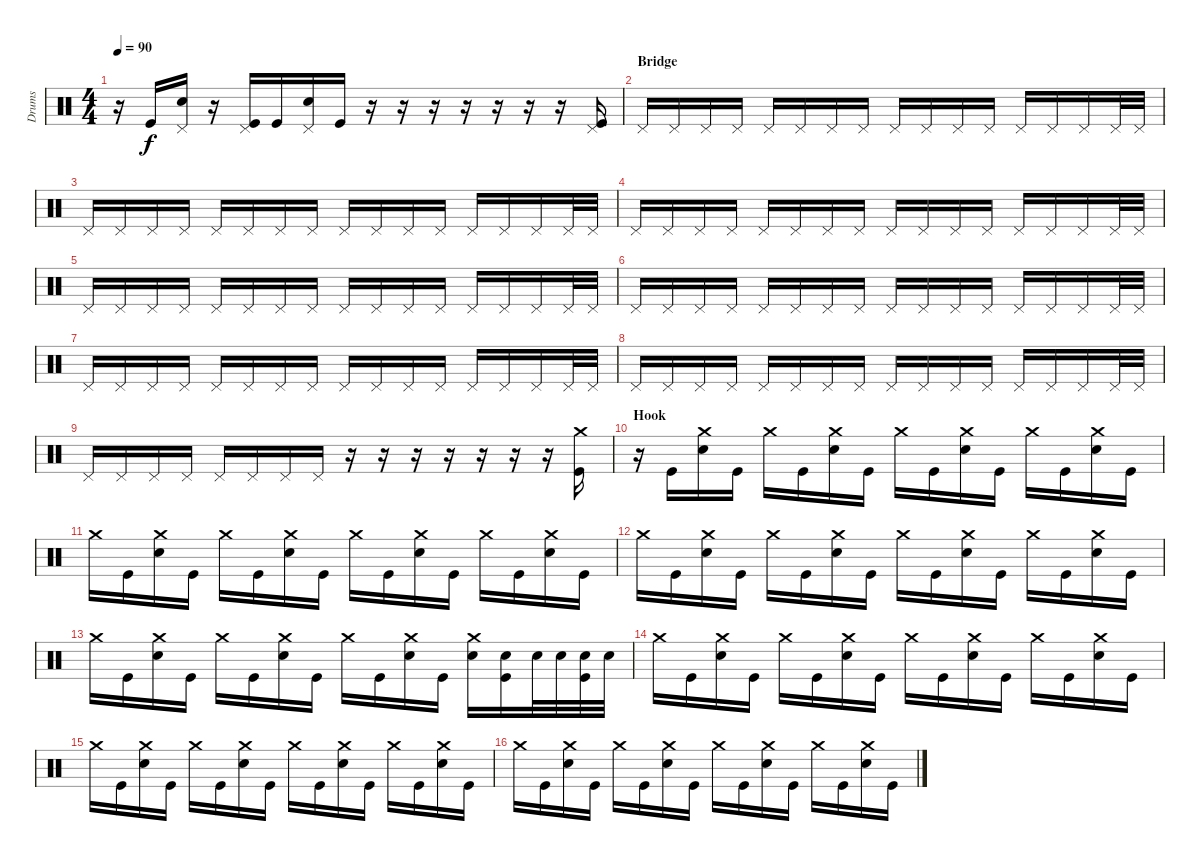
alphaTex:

\track ("Drums" "Drums") {instrument percussion}
\staff {score}
\articulation defaults
\ts (4 4)
\tempo 90
\clef neutral
\ks c
r.16{dy f} "Kick (hit)".16 ("Pedal Hi-Hat (hit)" "Snare (hit) 2").16 r.16 ("Pedal Hi-Hat (hit)" "Kick (hit)").16 "Kick (hit)".16 ("Pedal Hi-Hat (hit)" "Snare (hit) 2").16 "Kick (hit)".16 r.16 r.16 r.16 r.16 r.16 r.16 r.16 ("Pedal Hi-Hat (hit)" "Kick (hit)").16 |
\section ("" "Bridge")
"Pedal Hi-Hat (hit)".16 "Pedal Hi-Hat (hit)".16 "Pedal Hi-Hat (hit)".16 "Pedal Hi-Hat (hit)".16 "Pedal Hi-Hat (hit)".16 "Pedal Hi-Hat (hit)".16 "Pedal Hi-Hat (hit)".16 "Pedal Hi-Hat (hit)".16 "Pedal Hi-Hat (hit)".16 "Pedal Hi-Hat (hit)".16 "Pedal Hi-Hat (hit)".16 "Pedal Hi-Hat (hit)".16 "Pedal Hi-Hat (hit)".16 "Pedal Hi-Hat (hit)".16 "Pedal Hi-Hat (hit)".16 "Pedal Hi-Hat (hit)".32 "Pedal Hi-Hat (hit)".32 |
"Pedal Hi-Hat (hit)".16 "Pedal Hi-Hat (hit)".16 "Pedal Hi-Hat (hit)".16 "Pedal Hi-Hat (hit)".16 "Pedal Hi-Hat (hit)".16 "Pedal Hi-Hat (hit)".16 "Pedal Hi-Hat (hit)".16 "Pedal Hi-Hat (hit)".16 "Pedal Hi-Hat (hit)".16 "Pedal Hi-Hat (hit)".16 "Pedal Hi-Hat (hit)".16 "Pedal Hi-Hat (hit)".16 "Pedal Hi-Hat (hit)".16 "Pedal Hi-Hat (hit)".16 "Pedal Hi-Hat (hit)".16 "Pedal Hi-Hat (hit)".32 "Pedal Hi-Hat (hit)".32 |
"Pedal Hi-Hat (hit)".16 "Pedal Hi-Hat (hit)".16 "Pedal Hi-Hat (hit)".16 "Pedal Hi-Hat (hit)".16 "Pedal Hi-Hat (hit)".16 "Pedal Hi-Hat (hit)".16 "Pedal Hi-Hat (hit)".16 "Pedal Hi-Hat (hit)".16 "Pedal Hi-Hat (hit)".16 "Pedal Hi-Hat (hit)".16 "Pedal Hi-Hat (hit)".16 "Pedal Hi-Hat (hit)".16 "Pedal Hi-Hat (hit)".16 "Pedal Hi-Hat (hit)".16 "Pedal Hi-Hat (hit)".16 "Pedal Hi-Hat (hit)".32 "Pedal Hi-Hat (hit)".32 |
"Pedal Hi-Hat (hit)".16 "Pedal Hi-Hat (hit)".16 "Pedal Hi-Hat (hit)".16 "Pedal Hi-Hat (hit)".16 "Pedal Hi-Hat (hit)".16 "Pedal Hi-Hat (hit)".16 "Pedal Hi-Hat (hit)".16 "Pedal Hi-Hat (hit)".16 "Pedal Hi-Hat (hit)".16 "Pedal Hi-Hat (hit)".16 "Pedal Hi-Hat (hit)".16 "Pedal Hi-Hat (hit)".16 "Pedal Hi-Hat (hit)".16 "Pedal Hi-Hat (hit)".16 "Pedal Hi-Hat (hit)".16 "Pedal Hi-Hat (hit)".32 "Pedal Hi-Hat (hit)".32 |
"Pedal Hi-Hat (hit)".16 "Pedal Hi-Hat (hit)".16 "Pedal Hi-Hat (hit)".16 "Pedal Hi-Hat (hit)".16 "Pedal Hi-Hat (hit)".16 "Pedal Hi-Hat (hit)".16 "Pedal Hi-Hat (hit)".16 "Pedal Hi-Hat (hit)".16 "Pedal Hi-Hat (hit)".16 "Pedal Hi-Hat (hit)".16 "Pedal Hi-Hat (hit)".16 "Pedal Hi-Hat (hit)".16 "Pedal Hi-Hat (hit)".16 "Pedal Hi-Hat (hit)".16 "Pedal Hi-Hat (hit)".16 "Pedal Hi-Hat (hit)".32 "Pedal Hi-Hat (hit)".32 |
"Pedal Hi-Hat (hit)".16 "Pedal Hi-Hat (hit)".16 "Pedal Hi-Hat (hit)".16 "Pedal Hi-Hat (hit)".16 "Pedal Hi-Hat (hit)".16 "Pedal Hi-Hat (hit)".16 "Pedal Hi-Hat (hit)".16 "Pedal Hi-Hat (hit)".16 "Pedal Hi-Hat (hit)".16 "Pedal Hi-Hat (hit)".16 "Pedal Hi-Hat (hit)".16 "Pedal Hi-Hat (hit)".16 "Pedal Hi-Hat (hit)".16 "Pedal Hi-Hat (hit)".16 "Pedal Hi-Hat (hit)".16 "Pedal Hi-Hat (hit)".32 "Pedal Hi-Hat (hit)".32 |
"Pedal Hi-Hat (hit)".16 "Pedal Hi-Hat (hit)".16 "Pedal Hi-Hat (hit)".16 "Pedal Hi-Hat (hit)".16 "Pedal Hi-Hat (hit)".16 "Pedal Hi-Hat (hit)".16 "Pedal Hi-Hat (hit)".16 "Pedal Hi-Hat (hit)".16 "Pedal Hi-Hat (hit)".16 "Pedal Hi-Hat (hit)".16 "Pedal Hi-Hat (hit)".16 "Pedal Hi-Hat (hit)".16 "Pedal Hi-Hat (hit)".16 "Pedal Hi-Hat (hit)".16 "Pedal Hi-Hat (hit)".16 "Pedal Hi-Hat (hit)".32 "Pedal Hi-Hat (hit)".32 |
"Pedal Hi-Hat (hit)".16 "Pedal Hi-Hat (hit)".16 "Pedal Hi-Hat (hit)".16 "Pedal Hi-Hat (hit)".16 "Pedal Hi-Hat (hit)".16 "Pedal Hi-Hat (hit)".16 "Pedal Hi-Hat (hit)".16 "Pedal Hi-Hat (hit)".16 r.16 r.16 r.16 r.16 r.16 r.16 r.16 ("Crash medium (hit)" "Kick (hit)").16 |
\section ("" "Hook")
r.16 "Kick (hit)".16 ("Crash medium (hit)" "Snare (hit) 2").16 "Kick (hit)".16 "Crash medium (hit)".16 "Kick (hit)".16 ("Crash medium (hit)" "Snare (hit) 2").16 "Kick (hit)".16 "Crash medium (hit)".16 "Kick (hit)".16 ("Crash medium (hit)" "Snare (hit) 2").16 "Kick (hit)".16 "Crash medium (hit)".16 "Kick (hit)".16 ("Crash medium (hit)" "Snare (hit) 2").16 "Kick (hit)".16 |
"Crash medium (hit)".16 "Kick (hit)".16 ("Crash medium (hit)" "Snare (hit) 2").16 "Kick (hit)".16 "Crash medium (hit)".16 "Kick (hit)".16 ("Crash medium (hit)" "Snare (hit) 2").16 "Kick (hit)".16 "Crash medium (hit)".16 "Kick (hit)".16 ("Crash medium (hit)" "Snare (hit) 2").16 "Kick (hit)".16 "Crash medium (hit)".16 "Kick (hit)".16 ("Crash medium (hit)" "Snare (hit) 2").16 "Kick (hit)".16 |
"Crash medium (hit)".16 "Kick (hit)".16 ("Crash medium (hit)" "Snare (hit) 2").16 "Kick (hit)".16 "Crash medium (hit)".16 "Kick (hit)".16 ("Crash medium (hit)" "Snare (hit) 2").16 "Kick (hit)".16 "Crash medium (hit)".16 "Kick (hit)".16 ("Crash medium (hit)" "Snare (hit) 2").16 "Kick (hit)".16 "Crash medium (hit)".16 "Kick (hit)".16 ("Crash medium (hit)" "Snare (hit) 2").16 "Kick (hit)".16 |
"Crash medium (hit)".16 "Kick (hit)".16 ("Crash medium (hit)" "Snare (hit) 2").16 "Kick (hit)".16 "Crash medium (hit)".16 "Kick (hit)".16 ("Crash medium (hit)" "Snare (hit) 2").16 "Kick (hit)".16 "Crash medium (hit)".16 "Kick (hit)".16 ("Crash medium (hit)" "Snare (hit) 2").16 "Kick (hit)".16 ("Crash medium (hit)" "Snare (hit) 2").16 ("Snare (hit) 2" "Kick (hit)").16 "Snare (hit) 2".32 "Snare (hit) 2".32 ("Snare (hit) 2" "Kick (hit)").32 "Snare (hit) 2".32 |
"Crash medium (hit)".16 "Kick (hit)".16 ("Crash medium (hit)" "Snare (hit) 2").16 "Kick (hit)".16 "Crash medium (hit)".16 "Kick (hit)".16 ("Crash medium (hit)" "Snare (hit) 2").16 "Kick (hit)".16 "Crash medium (hit)".16 "Kick (hit)".16 ("Crash medium (hit)" "Snare (hit) 2").16 "Kick (hit)".16 "Crash medium (hit)".16 "Kick (hit)".16 ("Crash medium (hit)" "Snare (hit) 2").16 "Kick (hit)".16 |
"Crash medium (hit)".16 "Kick (hit)".16 ("Crash medium (hit)" "Snare (hit) 2").16 "Kick (hit)".16 "Crash medium (hit)".16 "Kick (hit)".16 ("Crash medium (hit)" "Snare (hit) 2").16 "Kick (hit)".16 "Crash medium (hit)".16 "Kick (hit)".16 ("Crash medium (hit)" "Snare (hit) 2").16 "Kick (hit)".16 "Crash medium (hit)".16 "Kick (hit)".16 ("Crash medium (hit)" "Snare (hit) 2").16 "Kick (hit)".16 |
"Crash medium (hit)".16 "Kick (hit)".16 ("Crash medium (hit)" "Snare (hit) 2").16 "Kick (hit)".16 "Crash medium (hit)".16 "Kick (hit)".16 ("Crash medium (hit)" "Snare (hit) 2").16 "Kick (hit)".16 "Crash medium (hit)".16 "Kick (hit)".16 ("Crash medium (hit)" "Snare (hit) 2").16 "Kick (hit)".16 "Crash medium (hit)".16 "Kick (hit)".16 ("Crash medium (hit)" "Snare (hit) 2").16 "Kick (hit)".16
